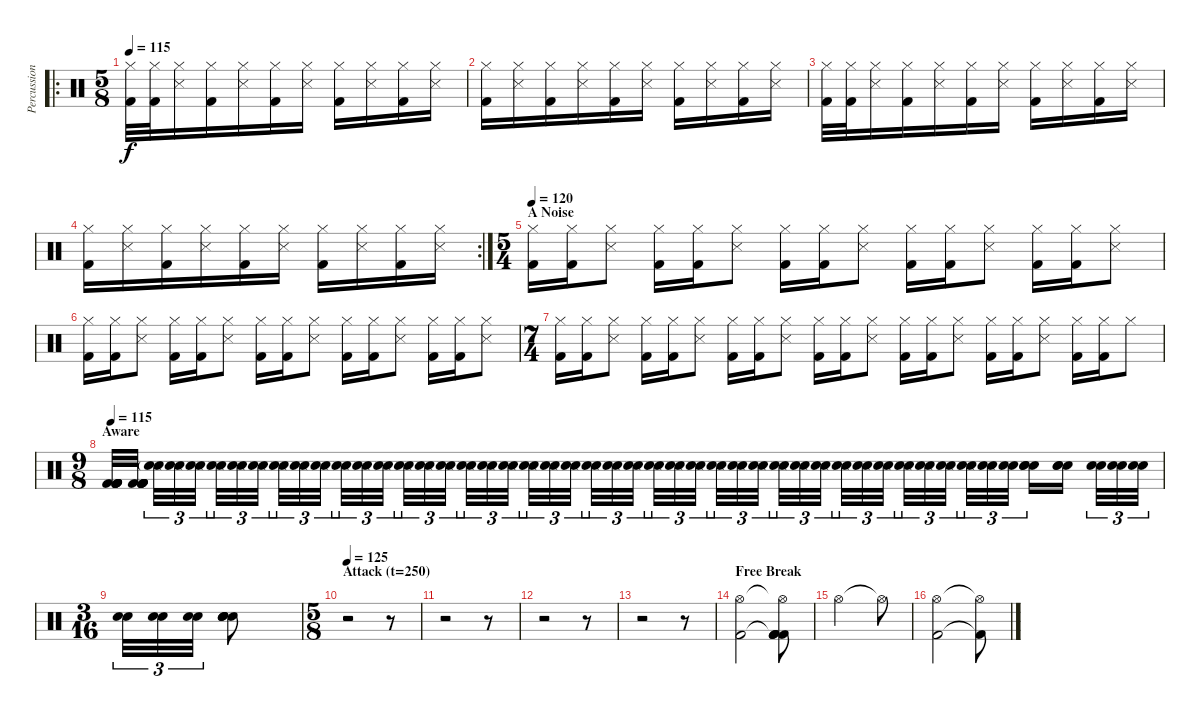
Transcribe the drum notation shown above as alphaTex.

\track ("Percussion" "Percussion") {instrument percussion}
\staff {score}
\articulation defaults
\ro
\ts (5 8)
\tempo 115
\clef neutral
\ks c
("Hi-Hat (closed)" "Kick (hit) 2").32{dy f} ("Hi-Hat (closed)" "Kick (hit) 2").32 ("Hi-Hat (closed)" "Snare (side stick) 3").16 ("Hi-Hat (closed)" "Kick (hit) 2").16 ("Hi-Hat (closed)" "Snare (side stick) 3").16 ("Hi-Hat (closed)" "Kick (hit) 2").16 ("Hi-Hat (closed)" "Snare (side stick) 3").16 ("Hi-Hat (closed)" "Kick (hit) 2").16 ("Hi-Hat (closed)" "Snare (side stick) 3").16 ("Hi-Hat (closed)" "Kick (hit) 2").16 ("Hi-Hat (closed)" "Snare (side stick) 3").16 |
("Hi-Hat (closed)" "Kick (hit) 2").16 ("Hi-Hat (closed)" "Snare (side stick) 3").16 ("Hi-Hat (closed)" "Kick (hit) 2").16 ("Hi-Hat (closed)" "Snare (side stick) 3").16 ("Hi-Hat (closed)" "Kick (hit) 2").16 ("Hi-Hat (closed)" "Snare (side stick) 3").16 ("Hi-Hat (closed)" "Kick (hit) 2").16 ("Hi-Hat (closed)" "Snare (side stick) 3").16 ("Hi-Hat (closed)" "Kick (hit) 2").16 ("Hi-Hat (closed)" "Snare (side stick) 3").16 |
("Hi-Hat (closed)" "Kick (hit) 2").32 ("Hi-Hat (closed)" "Kick (hit) 2").32 ("Hi-Hat (closed)" "Snare (side stick) 3").16 ("Hi-Hat (closed)" "Kick (hit) 2").16 ("Hi-Hat (closed)" "Snare (side stick) 3").16 ("Hi-Hat (closed)" "Kick (hit) 2").16 ("Hi-Hat (closed)" "Snare (side stick) 3").16 ("Hi-Hat (closed)" "Kick (hit) 2").16 ("Hi-Hat (closed)" "Snare (side stick) 3").16 ("Hi-Hat (closed)" "Kick (hit) 2").16 ("Hi-Hat (closed)" "Snare (side stick) 3").16 |
\rc 2
("Hi-Hat (closed)" "Kick (hit) 2").16 ("Hi-Hat (closed)" "Snare (side stick) 3").16 ("Hi-Hat (closed)" "Kick (hit) 2").16 ("Hi-Hat (closed)" "Snare (side stick) 3").16 ("Hi-Hat (closed)" "Kick (hit) 2").16 ("Hi-Hat (closed)" "Snare (side stick) 3").16 ("Hi-Hat (closed)" "Kick (hit) 2").16 ("Hi-Hat (closed)" "Snare (side stick) 3").16 ("Hi-Hat (closed)" "Kick (hit) 2").16 ("Hi-Hat (closed)" "Snare (side stick) 3").16 |
\ts (5 4)
\section ("" "A Noise")
\tempo 120
("Hi-Hat (closed)" "Kick (hit) 2").16 ("Hi-Hat (closed)" "Kick (hit) 2").16 ("Hi-Hat (closed)" "Snare (side stick) 3").8 ("Hi-Hat (closed)" "Kick (hit) 2").16 ("Hi-Hat (closed)" "Kick (hit) 2").16 ("Hi-Hat (closed)" "Snare (side stick) 3").8 ("Hi-Hat (closed)" "Kick (hit) 2").16 ("Hi-Hat (closed)" "Kick (hit) 2").16 ("Hi-Hat (closed)" "Snare (side stick) 3").8 ("Hi-Hat (closed)" "Kick (hit) 2").16 ("Hi-Hat (closed)" "Kick (hit) 2").16 ("Hi-Hat (closed)" "Snare (side stick) 3").8 ("Hi-Hat (closed)" "Kick (hit) 2").16 ("Hi-Hat (closed)" "Kick (hit) 2").16 ("Hi-Hat (closed)" "Snare (side stick) 3").8 |
("Hi-Hat (closed)" "Kick (hit) 2").16 ("Hi-Hat (closed)" "Kick (hit) 2").16 ("Hi-Hat (closed)" "Snare (side stick) 3").8 ("Hi-Hat (closed)" "Kick (hit) 2").16 ("Hi-Hat (closed)" "Kick (hit) 2").16 ("Hi-Hat (closed)" "Snare (side stick) 3").8 ("Hi-Hat (closed)" "Kick (hit) 2").16 ("Hi-Hat (closed)" "Kick (hit) 2").16 ("Hi-Hat (closed)" "Snare (side stick) 3").8 ("Hi-Hat (closed)" "Kick (hit) 2").16 ("Hi-Hat (closed)" "Kick (hit) 2").16 ("Hi-Hat (closed)" "Snare (side stick) 3").8 ("Hi-Hat (closed)" "Kick (hit) 2").16 ("Hi-Hat (closed)" "Kick (hit) 2").16 ("Hi-Hat (closed)" "Snare (side stick) 3").8 |
\ts (7 4)
("Hi-Hat (closed)" "Kick (hit) 2").16 ("Hi-Hat (closed)" "Kick (hit) 2").16 ("Hi-Hat (closed)" "Snare (side stick) 3").8 ("Hi-Hat (closed)" "Kick (hit) 2").16 ("Hi-Hat (closed)" "Kick (hit) 2").16 ("Hi-Hat (closed)" "Snare (side stick) 3").8 ("Hi-Hat (closed)" "Kick (hit) 2").16 ("Hi-Hat (closed)" "Kick (hit) 2").16 ("Hi-Hat (closed)" "Snare (side stick) 3").8 ("Hi-Hat (closed)" "Kick (hit) 2").16 ("Hi-Hat (closed)" "Kick (hit) 2").16 ("Hi-Hat (closed)" "Snare (side stick) 3").8 ("Hi-Hat (closed)" "Kick (hit) 2").16 ("Hi-Hat (closed)" "Kick (hit) 2").16 ("Hi-Hat (closed)" "Snare (side stick) 3").8 ("Hi-Hat (closed)" "Kick (hit) 2").16 ("Hi-Hat (closed)" "Kick (hit) 2").16 ("Hi-Hat (closed)" "Snare (side stick) 3").8 ("Hi-Hat (closed)" "Kick (hit) 2").16 ("Hi-Hat (closed)" "Kick (hit) 2").16 "Hi-Hat (closed)".8 |
\ts (9 8)
\section ("" "Aware")
\tempo 115
("Kick (hit) 2" "Kick (hit) 2" "Kick (hit) 2" "Kick (hit) 2" "Kick (hit) 2" "Kick (hit) 2").32 ("Kick (hit) 2" "Kick (hit) 2" "Kick (hit) 2" "Kick (hit) 2" "Kick (hit) 2" "Kick (hit) 2").32 ("Snare (hit) 2"{g} "Snare (hit) 2"{g}).32{tu (3 2)} ("Snare (hit) 2"{g} "Snare (hit) 2"{g}).32{tu (3 2)} ("Snare (hit) 2"{g} "Snare (hit) 2"{g}).32{tu (3 2)} ("Snare (hit) 2"{g} "Snare (hit) 2"{g}).32{tu (3 2)} ("Snare (hit) 2"{g} "Snare (hit) 2"{g}).32{tu (3 2)} ("Snare (hit) 2"{g} "Snare (hit) 2"{g}).32{tu (3 2)} ("Snare (hit) 2"{g} "Snare (hit) 2"{g}).32{tu (3 2)} ("Snare (hit) 2"{g} "Snare (hit) 2"{g}).32{tu (3 2)} ("Snare (hit) 2"{g} "Snare (hit) 2"{g}).32{tu (3 2)} ("Snare (hit) 2"{g} "Snare (hit) 2"{g}).32{tu (3 2)} ("Snare (hit) 2"{g} "Snare (hit) 2"{g}).32{tu (3 2)} ("Snare (hit) 2"{g} "Snare (hit) 2"{g}).32{tu (3 2)} ("Snare (hit) 2"{g} "Snare (hit) 2"{g}).32{tu (3 2)} ("Snare (hit) 2"{g} "Snare (hit) 2"{g}).32{tu (3 2)} ("Snare (hit) 2"{g} "Snare (hit) 2"{g}).32{tu (3 2)} ("Snare (hit) 2"{g} "Snare (hit) 2"{g}).32{tu (3 2)} ("Snare (hit) 2"{g} "Snare (hit) 2"{g}).32{tu (3 2)} ("Snare (hit) 2"{g} "Snare (hit) 2"{g}).32{tu (3 2)} ("Snare (hit) 2"{g} "Snare (hit) 2"{g}).32{tu (3 2)} ("Snare (hit) 2"{g} "Snare (hit) 2"{g}).32{tu (3 2)} ("Snare (hit) 2"{g} "Snare (hit) 2"{g}).32{tu (3 2)} ("Snare (hit) 2"{g} "Snare (hit) 2"{g}).32{tu (3 2)} ("Snare (hit) 2"{g} "Snare (hit) 2"{g}).32{tu (3 2)} ("Snare (hit) 2"{g} "Snare (hit) 2"{g}).32{tu (3 2)} ("Snare (hit) 2"{g} "Snare (hit) 2"{g}).32{tu (3 2)} ("Snare (hit) 2"{g} "Snare (hit) 2"{g}).32{tu (3 2)} ("Snare (hit) 2"{g} "Snare (hit) 2"{g}).32{tu (3 2)} ("Snare (hit) 2"{g} "Snare (hit) 2"{g}).32{tu (3 2)} ("Snare (hit) 2"{g} "Snare (hit) 2"{g}).32{tu (3 2)} ("Snare (hit) 2"{g} "Snare (hit) 2"{g}).32{tu (3 2)} ("Snare (hit) 2"{g} "Snare (hit) 2"{g}).32{tu (3 2)} ("Snare (hit) 2"{g} "Snare (hit) 2"{g}).32{tu (3 2)} ("Snare (hit) 2"{g} "Snare (hit) 2"{g}).32{tu (3 2)} ("Snare (hit) 2"{g} "Snare (hit) 2"{g}).32{tu (3 2)} ("Snare (hit) 2"{g} "Snare (hit) 2"{g}).32{tu (3 2)} ("Snare (hit) 2"{g} "Snare (hit) 2"{g}).32{tu (3 2)} ("Snare (hit) 2"{g} "Snare (hit) 2"{g}).32{tu (3 2)} ("Snare (hit) 2"{g} "Snare (hit) 2"{g}).32{tu (3 2)} ("Snare (hit) 2"{g} "Snare (hit) 2"{g}).32{tu (3 2)} ("Snare (hit) 2"{g} "Snare (hit) 2"{g}).32{tu (3 2)} ("Snare (hit) 2"{g} "Snare (hit) 2"{g}).32{tu (3 2)} ("Snare (hit) 2"{g} "Snare (hit) 2"{g}).32{tu (3 2)} ("Snare (hit) 2" "Snare (hit) 2" "Snare (hit) 2").16 ("Snare (hit) 2" "Snare (hit) 2" "Snare (hit) 2").16 ("Snare (hit) 2" "Snare (hit) 2").32{tu (3 2)} ("Snare (hit) 2" "Snare (hit) 2").32{tu (3 2)} ("Snare (hit) 2" "Snare (hit) 2").32{tu (3 2)} |
\ts (3 16)
("Snare (hit) 2" "Snare (hit) 2").32{tu (3 2)} ("Snare (hit) 2" "Snare (hit) 2").32{tu (3 2)} ("Snare (hit) 2" "Snare (hit) 2").32{tu (3 2)} ("Snare (hit) 2" "Snare (hit) 2" "Snare (hit) 2" "Snare (hit) 2").8 |
\ts (5 8)
\section ("" "Attack (t=250)")
\tempo 125
r.2 r.8 |
r.2 r.8 |
r.2 r.8 |
r.2 r.8 |
\section ("" "Free Break")
("Hi-Hat (open)" "Kick (hit) 2").2 ("Hi-Hat (open)"{t} "Kick (hit) 2"{t} "Kick (hit) 2" "Kick (hit) 2" "Kick (hit) 2").8 |
"Hi-Hat (open)".2 "Hi-Hat (open)"{t}.8 |
("Hi-Hat (open)" "Kick (hit) 2").2 ("Hi-Hat (open)"{t} "Kick (hit) 2"{t}).8
